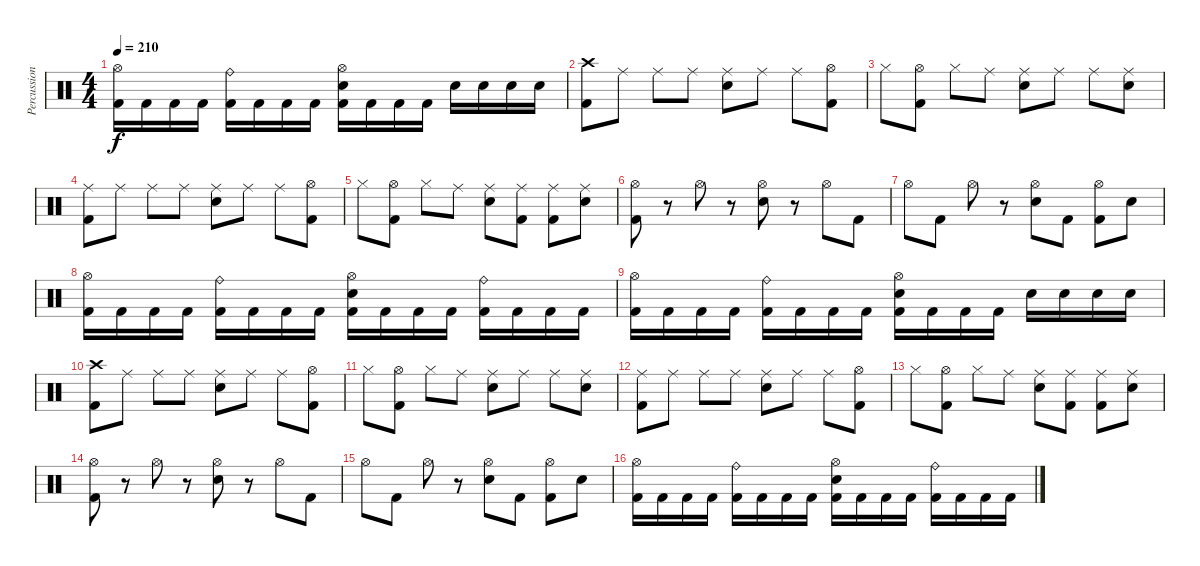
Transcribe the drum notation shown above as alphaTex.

\track ("Percussion" "Percussion") {instrument percussion}
\staff {score}
\articulation defaults
\ts (4 4)
\tempo 210
\clef neutral
\ks c
("Hi-Hat (open)" "Kick (hit) 2").16{dy f} "Kick (hit) 2".16 "Kick (hit) 2".16 "Kick (hit) 2".16 ("Ride (bell)" "Kick (hit) 2").16 "Kick (hit) 2".16 "Kick (hit) 2".16 "Kick (hit) 2".16 ("Hi-Hat (open)" "Electric Snare (hit)" "Kick (hit) 2").16 "Kick (hit) 2".16 "Kick (hit) 2".16 "Kick (hit) 2".16 "Electric Snare (hit)".16 "Electric Snare (hit)".16 "Electric Snare (hit)".16 "Electric Snare (hit)".16 |
("Crash high (hit)" "Kick (hit) 2").8 "Ride (middle)".8 "Ride (middle)".8 "Ride (middle)".8 ("Ride (middle)" "Electric Snare (hit)").8 "Ride (middle)".8 "Ride (middle)".8 ("Hi-Hat (open)" "Kick (hit) 2").8 |
"Hi-Hat (closed)".8 ("Hi-Hat (open)" "Kick (hit) 2").8 "Hi-Hat (closed)".8 "Ride (middle)".8 ("Ride (middle)" "Electric Snare (hit)").8 "Ride (middle)".8 "Ride (middle)".8 ("Ride (middle)" "Electric Snare (hit)").8 |
("Ride (middle)" "Kick (hit) 2").8 "Ride (middle)".8 "Ride (middle)".8 "Ride (middle)".8 ("Ride (middle)" "Electric Snare (hit)").8 "Ride (middle)".8 "Ride (middle)".8 ("Hi-Hat (open)" "Kick (hit) 2").8 |
"Hi-Hat (closed)".8 ("Hi-Hat (open)" "Kick (hit) 2").8 "Hi-Hat (closed)".8 "Ride (middle)".8 ("Ride (middle)" "Electric Snare (hit)").8 ("Ride (middle)" "Kick (hit) 2").8 ("Ride (middle)" "Kick (hit) 2").8 ("Ride (middle)" "Electric Snare (hit)").8 |
("Hi-Hat (open)" "Kick (hit) 2").8 r.8 "Hi-Hat (open)".8 r.8 ("Hi-Hat (open)" "Electric Snare (hit)").8 r.8 "Hi-Hat (open)".8 "Kick (hit) 2".8 |
"Hi-Hat (open)".8 "Kick (hit) 2".8 "Hi-Hat (open)".8 r.8 ("Hi-Hat (open)" "Electric Snare (hit)").8 "Kick (hit) 2".8 ("Hi-Hat (open)" "Kick (hit) 2").8 "Electric Snare (hit)".8 |
("Hi-Hat (open)" "Kick (hit) 2").16 "Kick (hit) 2".16 "Kick (hit) 2".16 "Kick (hit) 2".16 ("Ride (bell)" "Kick (hit) 2").16 "Kick (hit) 2".16 "Kick (hit) 2".16 "Kick (hit) 2".16 ("Hi-Hat (open)" "Electric Snare (hit)" "Kick (hit) 2").16 "Kick (hit) 2".16 "Kick (hit) 2".16 "Kick (hit) 2".16 ("Ride (bell)" "Kick (hit) 2").16 "Kick (hit) 2".16 "Kick (hit) 2".16 "Kick (hit) 2".16 |
("Hi-Hat (open)" "Kick (hit) 2").16 "Kick (hit) 2".16 "Kick (hit) 2".16 "Kick (hit) 2".16 ("Ride (bell)" "Kick (hit) 2").16 "Kick (hit) 2".16 "Kick (hit) 2".16 "Kick (hit) 2".16 ("Hi-Hat (open)" "Electric Snare (hit)" "Kick (hit) 2").16 "Kick (hit) 2".16 "Kick (hit) 2".16 "Kick (hit) 2".16 "Electric Snare (hit)".16 "Electric Snare (hit)".16 "Electric Snare (hit)".16 "Electric Snare (hit)".16 |
("Crash high (hit)" "Kick (hit) 2").8 "Ride (middle)".8 "Ride (middle)".8 "Ride (middle)".8 ("Ride (middle)" "Electric Snare (hit)").8 "Ride (middle)".8 "Ride (middle)".8 ("Hi-Hat (open)" "Kick (hit) 2").8 |
"Hi-Hat (closed)".8 ("Hi-Hat (open)" "Kick (hit) 2").8 "Hi-Hat (closed)".8 "Ride (middle)".8 ("Ride (middle)" "Electric Snare (hit)").8 "Ride (middle)".8 "Ride (middle)".8 ("Ride (middle)" "Electric Snare (hit)").8 |
("Ride (middle)" "Kick (hit) 2").8 "Ride (middle)".8 "Ride (middle)".8 "Ride (middle)".8 ("Ride (middle)" "Electric Snare (hit)").8 "Ride (middle)".8 "Ride (middle)".8 ("Hi-Hat (open)" "Kick (hit) 2").8 |
"Hi-Hat (closed)".8 ("Hi-Hat (open)" "Kick (hit) 2").8 "Hi-Hat (closed)".8 "Ride (middle)".8 ("Ride (middle)" "Electric Snare (hit)").8 ("Ride (middle)" "Kick (hit) 2").8 ("Ride (middle)" "Kick (hit) 2").8 ("Ride (middle)" "Electric Snare (hit)").8 |
("Hi-Hat (open)" "Kick (hit) 2").8 r.8 "Hi-Hat (open)".8 r.8 ("Hi-Hat (open)" "Electric Snare (hit)").8 r.8 "Hi-Hat (open)".8 "Kick (hit) 2".8 |
"Hi-Hat (open)".8 "Kick (hit) 2".8 "Hi-Hat (open)".8 r.8 ("Hi-Hat (open)" "Electric Snare (hit)").8 "Kick (hit) 2".8 ("Hi-Hat (open)" "Kick (hit) 2").8 "Electric Snare (hit)".8 |
("Hi-Hat (open)" "Kick (hit) 2").16 "Kick (hit) 2".16 "Kick (hit) 2".16 "Kick (hit) 2".16 ("Ride (bell)" "Kick (hit) 2").16 "Kick (hit) 2".16 "Kick (hit) 2".16 "Kick (hit) 2".16 ("Hi-Hat (open)" "Electric Snare (hit)" "Kick (hit) 2").16 "Kick (hit) 2".16 "Kick (hit) 2".16 "Kick (hit) 2".16 ("Ride (bell)" "Kick (hit) 2").16 "Kick (hit) 2".16 "Kick (hit) 2".16 "Kick (hit) 2".16
